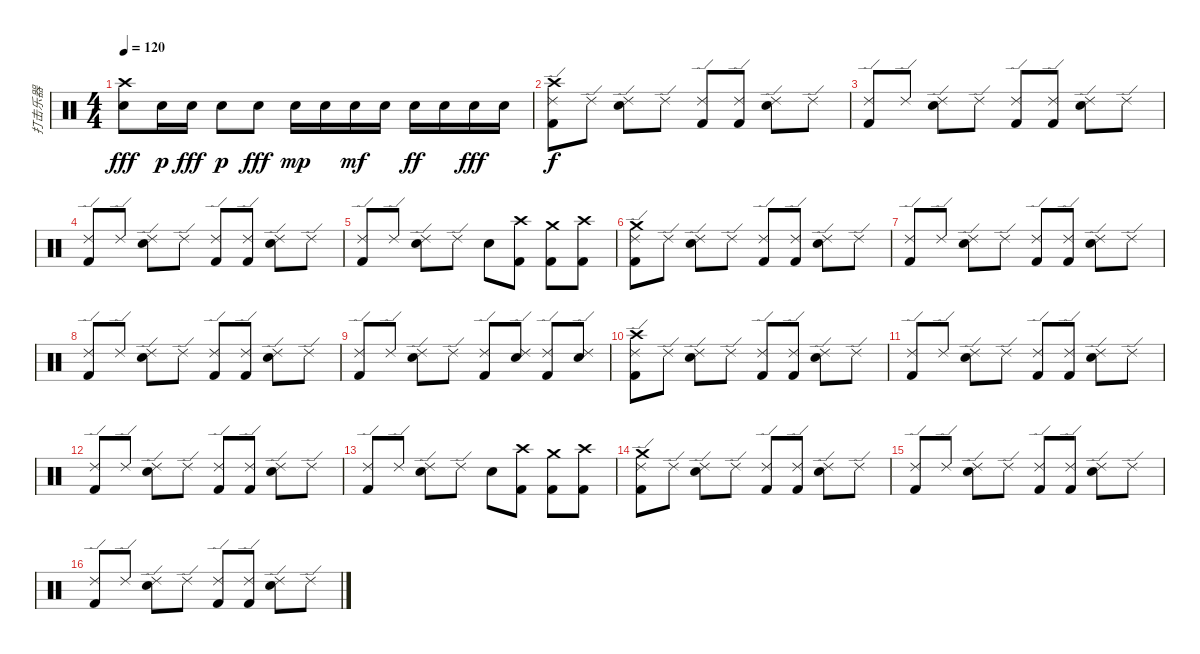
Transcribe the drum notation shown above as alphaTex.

\track ("打击乐器" "打击乐器") {instrument percussion}
\staff {score}
\articulation defaults
\ts (4 4)
\tempo 120
\clef neutral
\ks c
("Crash high (hit)" "Electric Snare (hit)").8{dy fff} "Electric Snare (hit)".16{dy p} "Electric Snare (hit)".16{dy fff} "Electric Snare (hit)".8{dy p} "Electric Snare (hit)".8{dy fff} "Electric Snare (hit)".16{dy mp} "Electric Snare (hit)".16 "Electric Snare (hit)".16{dy mf} "Electric Snare (hit)".16 "Electric Snare (hit)".16{dy ff} "Electric Snare (hit)".16 "Electric Snare (hit)".16{dy fff} "Electric Snare (hit)".16 |
("Ride (edge) 2" "Crash high (hit)" "Kick (hit) 2").8{dy f volume 13} "Ride (edge) 2".8 ("Ride (edge) 2" "Electric Snare (hit)").8 "Ride (edge) 2".8 ("Ride (edge) 2" "Kick (hit) 2").8 ("Ride (edge) 2" "Kick (hit) 2").8 ("Ride (edge) 2" "Electric Snare (hit)").8 "Ride (edge) 2".8 |
("Ride (edge) 2" "Kick (hit) 2").8 "Ride (edge) 2".8 ("Ride (edge) 2" "Electric Snare (hit)").8 "Ride (edge) 2".8 ("Ride (edge) 2" "Kick (hit) 2").8 ("Ride (edge) 2" "Kick (hit) 2").8 ("Ride (edge) 2" "Electric Snare (hit)").8 "Ride (edge) 2".8 |
("Ride (edge) 2" "Kick (hit) 2").8 "Ride (edge) 2".8 ("Ride (edge) 2" "Electric Snare (hit)").8 "Ride (edge) 2".8 ("Ride (edge) 2" "Kick (hit) 2").8 ("Ride (edge) 2" "Kick (hit) 2").8 ("Ride (edge) 2" "Electric Snare (hit)").8 "Ride (edge) 2".8 |
("Ride (edge) 2" "Kick (hit) 2").8 "Ride (edge) 2".8 ("Ride (edge) 2" "Electric Snare (hit)").8 "Ride (edge) 2".8 "Electric Snare (hit)".8 ("Crash high (hit)" "Kick (hit) 2").8 ("Crash medium (hit)" "Kick (hit) 2").8 ("Crash high (hit)" "Kick (hit) 2").8 |
("Ride (edge) 2" "Crash medium (hit)" "Kick (hit) 2").8 "Ride (edge) 2".8 ("Ride (edge) 2" "Electric Snare (hit)").8 "Ride (edge) 2".8 ("Ride (edge) 2" "Kick (hit) 2").8 ("Ride (edge) 2" "Kick (hit) 2").8 ("Ride (edge) 2" "Electric Snare (hit)").8 "Ride (edge) 2".8 |
("Ride (edge) 2" "Kick (hit) 2").8 "Ride (edge) 2".8 ("Ride (edge) 2" "Electric Snare (hit)").8 "Ride (edge) 2".8 ("Ride (edge) 2" "Kick (hit) 2").8 ("Ride (edge) 2" "Kick (hit) 2").8 ("Ride (edge) 2" "Electric Snare (hit)").8 "Ride (edge) 2".8 |
("Ride (edge) 2" "Kick (hit) 2").8 "Ride (edge) 2".8 ("Ride (edge) 2" "Electric Snare (hit)").8 "Ride (edge) 2".8 ("Ride (edge) 2" "Kick (hit) 2").8 ("Ride (edge) 2" "Kick (hit) 2").8 ("Ride (edge) 2" "Electric Snare (hit)").8 "Ride (edge) 2".8 |
("Ride (edge) 2" "Kick (hit) 2").8 "Ride (edge) 2".8 ("Ride (edge) 2" "Electric Snare (hit)").8 "Ride (edge) 2".8 ("Ride (edge) 2" "Kick (hit) 2").8 ("Ride (edge) 2" "Electric Snare (hit)").8 ("Ride (edge) 2" "Kick (hit) 2").8 ("Ride (edge) 2" "Electric Snare (hit)").8 |
("Ride (edge) 2" "Crash high (hit)" "Kick (hit) 2").8{volume 13} "Ride (edge) 2".8 ("Ride (edge) 2" "Electric Snare (hit)").8 "Ride (edge) 2".8 ("Ride (edge) 2" "Kick (hit) 2").8 ("Ride (edge) 2" "Kick (hit) 2").8 ("Ride (edge) 2" "Electric Snare (hit)").8 "Ride (edge) 2".8 |
("Ride (edge) 2" "Kick (hit) 2").8 "Ride (edge) 2".8 ("Ride (edge) 2" "Electric Snare (hit)").8 "Ride (edge) 2".8 ("Ride (edge) 2" "Kick (hit) 2").8 ("Ride (edge) 2" "Kick (hit) 2").8 ("Ride (edge) 2" "Electric Snare (hit)").8 "Ride (edge) 2".8 |
("Ride (edge) 2" "Kick (hit) 2").8 "Ride (edge) 2".8 ("Ride (edge) 2" "Electric Snare (hit)").8 "Ride (edge) 2".8 ("Ride (edge) 2" "Kick (hit) 2").8 ("Ride (edge) 2" "Kick (hit) 2").8 ("Ride (edge) 2" "Electric Snare (hit)").8 "Ride (edge) 2".8 |
("Ride (edge) 2" "Kick (hit) 2").8 "Ride (edge) 2".8 ("Ride (edge) 2" "Electric Snare (hit)").8 "Ride (edge) 2".8 "Electric Snare (hit)".8 ("Crash high (hit)" "Kick (hit) 2").8 ("Crash medium (hit)" "Kick (hit) 2").8 ("Crash high (hit)" "Kick (hit) 2").8 |
("Ride (edge) 2" "Crash medium (hit)" "Kick (hit) 2").8 "Ride (edge) 2".8 ("Ride (edge) 2" "Electric Snare (hit)").8 "Ride (edge) 2".8 ("Ride (edge) 2" "Kick (hit) 2").8 ("Ride (edge) 2" "Kick (hit) 2").8 ("Ride (edge) 2" "Electric Snare (hit)").8 "Ride (edge) 2".8 |
("Ride (edge) 2" "Kick (hit) 2").8 "Ride (edge) 2".8 ("Ride (edge) 2" "Electric Snare (hit)").8 "Ride (edge) 2".8 ("Ride (edge) 2" "Kick (hit) 2").8 ("Ride (edge) 2" "Kick (hit) 2").8 ("Ride (edge) 2" "Electric Snare (hit)").8 "Ride (edge) 2".8 |
("Ride (edge) 2" "Kick (hit) 2").8 "Ride (edge) 2".8 ("Ride (edge) 2" "Electric Snare (hit)").8 "Ride (edge) 2".8 ("Ride (edge) 2" "Kick (hit) 2").8 ("Ride (edge) 2" "Kick (hit) 2").8 ("Ride (edge) 2" "Electric Snare (hit)").8 "Ride (edge) 2".8
